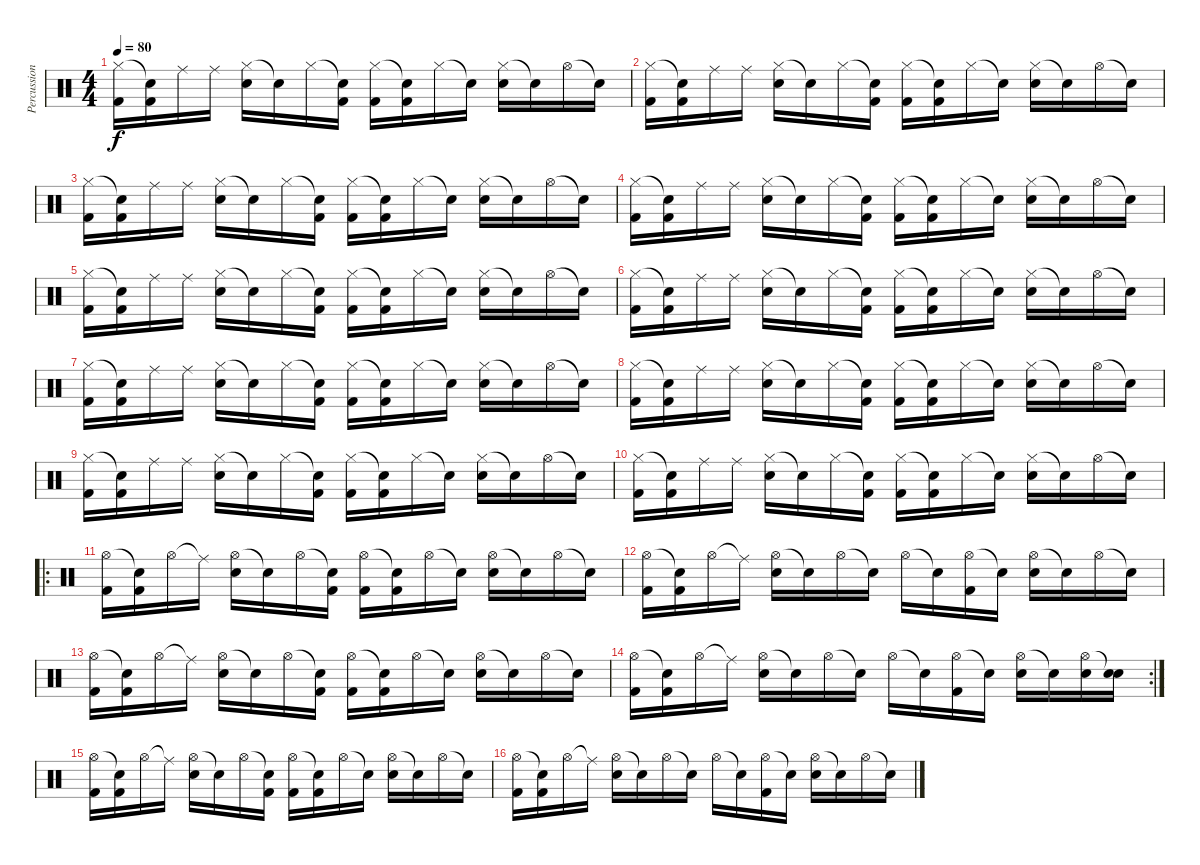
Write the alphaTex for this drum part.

\track ("Percussion" "Percussion") {instrument percussion}
\staff {score}
\articulation defaults
\ts (4 4)
\tempo 80
\clef neutral
\ks c
("Hi-Hat (closed)" "Kick (hit) 2").16{dy f} ("Snare (hit)"{t} "Kick (hit) 2").16 "Ride (middle)".16 "Ride (middle)".16 ("Hi-Hat (closed)" "Electric Snare (hit)").16 "Snare (hit)"{t}.16 "Hi-Hat (closed)".16 ("Snare (hit)"{t} "Kick (hit) 2").16 ("Hi-Hat (closed)" "Kick (hit) 2").16 ("Snare (hit)"{t} "Kick (hit) 2").16 "Hi-Hat (closed)".16 "Snare (hit)"{t}.16 ("Hi-Hat (closed)" "Electric Snare (hit)").16 "Snare (hit)"{t}.16 "Hi-Hat (open)".16 "Snare (hit)"{t}.16 |
("Hi-Hat (closed)" "Kick (hit) 2").16 ("Snare (hit)"{t} "Kick (hit) 2").16 "Ride (middle)".16 "Ride (middle)".16 ("Hi-Hat (closed)" "Electric Snare (hit)").16 "Snare (hit)"{t}.16 "Hi-Hat (closed)".16 ("Snare (hit)"{t} "Kick (hit) 2").16 ("Hi-Hat (closed)" "Kick (hit) 2").16 ("Snare (hit)"{t} "Kick (hit) 2").16 "Hi-Hat (closed)".16 "Snare (hit)"{t}.16 ("Hi-Hat (closed)" "Electric Snare (hit)").16 "Snare (hit)"{t}.16 "Hi-Hat (open)".16 "Snare (hit)"{t}.16 |
("Hi-Hat (closed)" "Kick (hit) 2").16 ("Snare (hit)"{t} "Kick (hit) 2").16 "Ride (middle)".16 "Ride (middle)".16 ("Hi-Hat (closed)" "Electric Snare (hit)").16 "Snare (hit)"{t}.16 "Hi-Hat (closed)".16 ("Snare (hit)"{t} "Kick (hit) 2").16 ("Hi-Hat (closed)" "Kick (hit) 2").16 ("Snare (hit)"{t} "Kick (hit) 2").16 "Hi-Hat (closed)".16 "Snare (hit)"{t}.16 ("Hi-Hat (closed)" "Electric Snare (hit)").16 "Snare (hit)"{t}.16 "Hi-Hat (open)".16 "Snare (hit)"{t}.16 |
("Hi-Hat (closed)" "Kick (hit) 2").16 ("Snare (hit)"{t} "Kick (hit) 2").16 "Ride (middle)".16 "Ride (middle)".16 ("Hi-Hat (closed)" "Electric Snare (hit)").16 "Snare (hit)"{t}.16 "Hi-Hat (closed)".16 ("Snare (hit)"{t} "Kick (hit) 2").16 ("Hi-Hat (closed)" "Kick (hit) 2").16 ("Snare (hit)"{t} "Kick (hit) 2").16 "Hi-Hat (closed)".16 "Snare (hit)"{t}.16 ("Hi-Hat (closed)" "Electric Snare (hit)").16 "Snare (hit)"{t}.16 "Hi-Hat (open)".16 "Snare (hit)"{t}.16 |
("Hi-Hat (closed)" "Kick (hit) 2").16 ("Snare (hit)"{t} "Kick (hit) 2").16 "Ride (middle)".16 "Ride (middle)".16 ("Hi-Hat (closed)" "Electric Snare (hit)").16 "Snare (hit)"{t}.16 "Hi-Hat (closed)".16 ("Snare (hit)"{t} "Kick (hit) 2").16 ("Hi-Hat (closed)" "Kick (hit) 2").16 ("Snare (hit)"{t} "Kick (hit) 2").16 "Hi-Hat (closed)".16 "Snare (hit)"{t}.16 ("Hi-Hat (closed)" "Electric Snare (hit)").16 "Snare (hit)"{t}.16 "Hi-Hat (open)".16 "Snare (hit)"{t}.16 |
("Hi-Hat (closed)" "Kick (hit) 2").16 ("Snare (hit)"{t} "Kick (hit) 2").16 "Ride (middle)".16 "Ride (middle)".16 ("Hi-Hat (closed)" "Electric Snare (hit)").16 "Snare (hit)"{t}.16 "Hi-Hat (closed)".16 ("Snare (hit)"{t} "Kick (hit) 2").16 ("Hi-Hat (closed)" "Kick (hit) 2").16 ("Snare (hit)"{t} "Kick (hit) 2").16 "Hi-Hat (closed)".16 "Snare (hit)"{t}.16 ("Hi-Hat (closed)" "Electric Snare (hit)").16 "Snare (hit)"{t}.16 "Hi-Hat (open)".16 "Snare (hit)"{t}.16 |
("Hi-Hat (closed)" "Kick (hit) 2").16 ("Snare (hit)"{t} "Kick (hit) 2").16 "Ride (middle)".16 "Ride (middle)".16 ("Hi-Hat (closed)" "Electric Snare (hit)").16 "Snare (hit)"{t}.16 "Hi-Hat (closed)".16 ("Snare (hit)"{t} "Kick (hit) 2").16 ("Hi-Hat (closed)" "Kick (hit) 2").16 ("Snare (hit)"{t} "Kick (hit) 2").16 "Hi-Hat (closed)".16 "Snare (hit)"{t}.16 ("Hi-Hat (closed)" "Electric Snare (hit)").16 "Snare (hit)"{t}.16 "Hi-Hat (open)".16 "Snare (hit)"{t}.16 |
("Hi-Hat (closed)" "Kick (hit) 2").16 ("Snare (hit)"{t} "Kick (hit) 2").16 "Ride (middle)".16 "Ride (middle)".16 ("Hi-Hat (closed)" "Electric Snare (hit)").16 "Snare (hit)"{t}.16 "Hi-Hat (closed)".16 ("Snare (hit)"{t} "Kick (hit) 2").16 ("Hi-Hat (closed)" "Kick (hit) 2").16 ("Snare (hit)"{t} "Kick (hit) 2").16 "Hi-Hat (closed)".16 "Snare (hit)"{t}.16 ("Hi-Hat (closed)" "Electric Snare (hit)").16 "Snare (hit)"{t}.16 "Hi-Hat (open)".16 "Snare (hit)"{t}.16 |
("Hi-Hat (closed)" "Kick (hit) 2").16 ("Snare (hit)"{t} "Kick (hit) 2").16 "Ride (middle)".16 "Ride (middle)".16 ("Hi-Hat (closed)" "Electric Snare (hit)").16 "Snare (hit)"{t}.16 "Hi-Hat (closed)".16 ("Snare (hit)"{t} "Kick (hit) 2").16 ("Hi-Hat (closed)" "Kick (hit) 2").16 ("Snare (hit)"{t} "Kick (hit) 2").16 "Hi-Hat (closed)".16 "Snare (hit)"{t}.16 ("Hi-Hat (closed)" "Electric Snare (hit)").16 "Snare (hit)"{t}.16 "Hi-Hat (open)".16 "Snare (hit)"{t}.16 |
("Hi-Hat (closed)" "Kick (hit) 2").16 ("Snare (hit)"{t} "Kick (hit) 2").16 "Ride (middle)".16 "Ride (middle)".16 ("Hi-Hat (closed)" "Electric Snare (hit)").16 "Snare (hit)"{t}.16 "Hi-Hat (closed)".16 ("Snare (hit)"{t} "Kick (hit) 2").16 ("Hi-Hat (closed)" "Kick (hit) 2").16 ("Snare (hit)"{t} "Kick (hit) 2").16 "Hi-Hat (closed)".16 "Snare (hit)"{t}.16 ("Hi-Hat (closed)" "Electric Snare (hit)").16 "Snare (hit)"{t}.16 "Hi-Hat (open)".16 "Snare (hit)"{t}.16 |
\ro
("Hi-Hat (open)" "Kick (hit) 2").16 ("Snare (hit)"{t} "Kick (hit) 2").16 "Hi-Hat (open)".16 "Ride (middle)"{t}.16 ("Hi-Hat (open)" "Electric Snare (hit)").16 "Snare (hit)"{t}.16 "Hi-Hat (open)".16 ("Snare (hit)"{t} "Kick (hit) 2").16 ("Hi-Hat (open)" "Kick (hit) 2").16 ("Snare (hit)"{t} "Kick (hit) 2").16 "Hi-Hat (open)".16 "Snare (hit)"{t}.16 ("Hi-Hat (open)" "Electric Snare (hit)").16 "Snare (hit)"{t}.16 "Hi-Hat (open)".16 "Snare (hit)"{t}.16 |
("Hi-Hat (open)" "Kick (hit) 2").16 ("Snare (hit)"{t} "Kick (hit) 2").16 "Hi-Hat (open)".16 "Ride (middle)"{t}.16 ("Hi-Hat (open)" "Electric Snare (hit)").16 "Snare (hit)"{t}.16 "Hi-Hat (open)".16 "Snare (hit)"{t}.16 "Hi-Hat (open)".16 "Snare (hit)"{t}.16 ("Hi-Hat (open)" "Kick (hit) 2").16 "Snare (hit)"{t}.16 ("Hi-Hat (open)" "Electric Snare (hit)").16 "Snare (hit)"{t}.16 "Hi-Hat (open)".16 "Snare (hit)"{t}.16 |
("Hi-Hat (open)" "Kick (hit) 2").16 ("Snare (hit)"{t} "Kick (hit) 2").16 "Hi-Hat (open)".16 "Ride (middle)"{t}.16 ("Hi-Hat (open)" "Electric Snare (hit)").16 "Snare (hit)"{t}.16 "Hi-Hat (open)".16 ("Snare (hit)"{t} "Kick (hit) 2").16 ("Hi-Hat (open)" "Kick (hit) 2").16 ("Snare (hit)"{t} "Kick (hit) 2").16 "Hi-Hat (open)".16 "Snare (hit)"{t}.16 ("Hi-Hat (open)" "Electric Snare (hit)").16 "Snare (hit)"{t}.16 "Hi-Hat (open)".16 "Snare (hit)"{t}.16 |
\rc 2
("Hi-Hat (open)" "Kick (hit) 2").16 ("Snare (hit)"{t} "Kick (hit) 2").16 "Hi-Hat (open)".16 "Ride (middle)"{t}.16 ("Hi-Hat (open)" "Electric Snare (hit)").16 "Snare (hit)"{t}.16 "Hi-Hat (open)".16 "Snare (hit)"{t}.16 "Hi-Hat (open)".16 "Snare (hit)"{t}.16 ("Hi-Hat (open)" "Kick (hit) 2").16 "Snare (hit)"{t}.16 ("Hi-Hat (open)" "Electric Snare (hit)").16 "Snare (hit)"{t}.16 ("Hi-Hat (open)" "Electric Snare (hit)").16 ("Snare (hit)"{t} "Electric Snare (hit)").16 |
("Hi-Hat (open)" "Kick (hit) 2").16 ("Snare (hit)"{t} "Kick (hit) 2").16 "Hi-Hat (open)".16 "Ride (middle)"{t}.16 ("Hi-Hat (open)" "Electric Snare (hit)").16 "Snare (hit)"{t}.16 "Hi-Hat (open)".16 ("Snare (hit)"{t} "Kick (hit) 2").16 ("Hi-Hat (open)" "Kick (hit) 2").16 ("Snare (hit)"{t} "Kick (hit) 2").16 "Hi-Hat (open)".16 "Snare (hit)"{t}.16 ("Hi-Hat (open)" "Electric Snare (hit)").16 "Snare (hit)"{t}.16 "Hi-Hat (open)".16 "Snare (hit)"{t}.16 |
("Hi-Hat (open)" "Kick (hit) 2").16 ("Snare (hit)"{t} "Kick (hit) 2").16 "Hi-Hat (open)".16 "Ride (middle)"{t}.16 ("Hi-Hat (open)" "Electric Snare (hit)").16 "Snare (hit)"{t}.16 "Hi-Hat (open)".16 "Snare (hit)"{t}.16 "Hi-Hat (open)".16 "Snare (hit)"{t}.16 ("Hi-Hat (open)" "Kick (hit) 2").16 "Snare (hit)"{t}.16 ("Hi-Hat (open)" "Electric Snare (hit)").16 "Snare (hit)"{t}.16 "Hi-Hat (open)".16 "Snare (hit)"{t}.16
